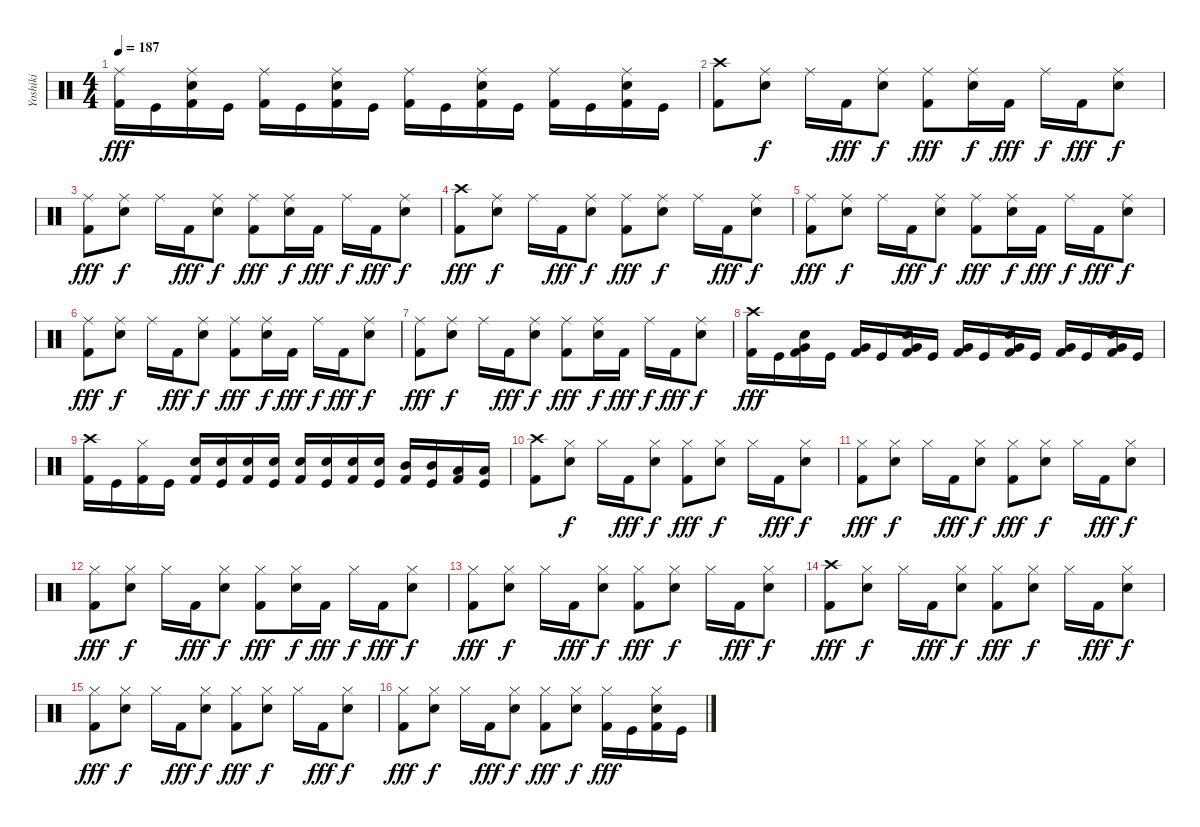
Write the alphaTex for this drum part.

\track ("Yoshiki" "Yoshiki") {instrument percussion}
\staff {score}
\articulation defaults
\ts (4 4)
\tempo 187
\clef neutral
\ks c
("Ride (middle)" "Kick (hit) 2").16{dy fff} "Kick (hit)".16 ("Ride (middle)" "Electric Snare (hit)" "Kick (hit) 2").16 "Kick (hit)".16 ("Ride (middle)" "Kick (hit) 2").16 "Kick (hit)".16 ("Ride (middle)" "Electric Snare (hit)" "Kick (hit) 2").16 "Kick (hit)".16 ("Ride (middle)" "Kick (hit) 2").16 "Kick (hit)".16 ("Ride (middle)" "Electric Snare (hit)" "Kick (hit) 2").16 "Kick (hit)".16 ("Ride (middle)" "Kick (hit) 2").16 "Kick (hit)".16 ("Ride (middle)" "Electric Snare (hit)" "Kick (hit) 2").16 "Kick (hit)".16 |
("Crash high (hit)" "Kick (hit) 2").8 ("Ride (middle)" "Electric Snare (hit)").8{dy f} "Ride (middle)".16 "Kick (hit) 2".16{dy fff} ("Ride (middle)" "Electric Snare (hit)").8{dy f} ("Ride (middle)" "Kick (hit) 2").8{dy fff} ("Ride (middle)" "Electric Snare (hit)").16{dy f} "Kick (hit) 2".16{dy fff} "Ride (middle)".16{dy f} "Kick (hit) 2".16{dy fff} ("Ride (middle)" "Electric Snare (hit)").8{dy f} |
("Ride (middle)" "Kick (hit) 2").8{dy fff} ("Ride (middle)" "Electric Snare (hit)").8{dy f} "Ride (middle)".16 "Kick (hit) 2".16{dy fff} ("Ride (middle)" "Electric Snare (hit)").8{dy f} ("Ride (middle)" "Kick (hit) 2").8{dy fff} ("Ride (middle)" "Electric Snare (hit)").16{dy f} "Kick (hit) 2".16{dy fff} "Ride (middle)".16{dy f} "Kick (hit) 2".16{dy fff} ("Ride (middle)" "Electric Snare (hit)").8{dy f} |
("Crash high (hit)" "Kick (hit) 2").8{dy fff} ("Ride (middle)" "Electric Snare (hit)").8{dy f} "Ride (middle)".16 "Kick (hit) 2".16{dy fff} ("Ride (middle)" "Electric Snare (hit)").8{dy f} ("Ride (middle)" "Kick (hit) 2").8{dy fff} ("Ride (middle)" "Electric Snare (hit)").8{dy f} "Ride (middle)".16 "Kick (hit) 2".16{dy fff} ("Ride (middle)" "Electric Snare (hit)").8{dy f} |
("Ride (middle)" "Kick (hit) 2").8{dy fff} ("Ride (middle)" "Electric Snare (hit)").8{dy f} "Ride (middle)".16 "Kick (hit) 2".16{dy fff} ("Ride (middle)" "Electric Snare (hit)").8{dy f} ("Ride (middle)" "Kick (hit) 2").8{dy fff} ("Ride (middle)" "Electric Snare (hit)").16{dy f} "Kick (hit) 2".16{dy fff} "Ride (middle)".16{dy f} "Kick (hit) 2".16{dy fff} ("Ride (middle)" "Electric Snare (hit)").8{dy f} |
("Ride (middle)" "Kick (hit) 2").8{dy fff} ("Ride (middle)" "Electric Snare (hit)").8{dy f} "Ride (middle)".16 "Kick (hit) 2".16{dy fff} ("Ride (middle)" "Electric Snare (hit)").8{dy f} ("Ride (middle)" "Kick (hit) 2").8{dy fff} ("Ride (middle)" "Electric Snare (hit)").16{dy f} "Kick (hit) 2".16{dy fff} "Ride (middle)".16{dy f} "Kick (hit) 2".16{dy fff} ("Ride (middle)" "Electric Snare (hit)").8{dy f} |
("Ride (middle)" "Kick (hit) 2").8{dy fff} ("Ride (middle)" "Electric Snare (hit)").8{dy f} "Ride (middle)".16 "Kick (hit) 2".16{dy fff} ("Ride (middle)" "Electric Snare (hit)").8{dy f} ("Ride (middle)" "Kick (hit) 2").8{dy fff} ("Ride (middle)" "Electric Snare (hit)").16{dy f} "Kick (hit) 2".16{dy fff} "Ride (middle)".16{dy f} "Kick (hit) 2".16{dy fff} ("Ride (middle)" "Electric Snare (hit)").8{dy f} |
("Crash high (hit)" "Kick (hit) 2").16{dy fff} "Kick (hit)".16 ("Very Low Tom (hit)" "Electric Snare (hit)" "Kick (hit) 2").16 "Kick (hit)".16 ("Very Low Tom (hit)" "Kick (hit) 2").16 "Kick (hit)".16 ("Very Low Tom (hit)" "Electric Snare (hit)" "Kick (hit) 2").16 "Kick (hit)".16 ("Very Low Tom (hit)" "Kick (hit) 2").16 "Kick (hit)".16 ("Very Low Tom (hit)" "Electric Snare (hit)" "Kick (hit) 2").16 "Kick (hit)".16 ("Very Low Tom (hit)" "Kick (hit) 2").16 "Kick (hit)".16 ("Very Low Tom (hit)" "Electric Snare (hit)" "Kick (hit) 2").16 "Kick (hit)".16 |
("Crash high (hit)" "Kick (hit) 2").16 "Kick (hit)".16 ("Hi-Hat (closed)" "Kick (hit) 2").16 "Kick (hit)".16 ("Electric Snare (hit)" "Kick (hit) 2").16 ("Electric Snare (hit)" "Kick (hit)").16 ("Electric Snare (hit)" "Kick (hit) 2").16 ("Electric Snare (hit)" "Kick (hit)").16 ("Electric Snare (hit)" "Kick (hit) 2").16 ("Electric Snare (hit)" "Kick (hit)").16 ("Electric Snare (hit)" "Kick (hit) 2").16 ("Electric Snare (hit)" "Kick (hit)").16 ("Mid Tom (hit)" "Kick (hit) 2").16 ("Mid Tom (hit)" "Kick (hit)").16 ("Low Tom (hit)" "Kick (hit) 2").16 ("Low Tom (hit)" "Kick (hit)").16 |
("Crash high (hit)" "Kick (hit) 2").8 ("Hi-Hat (closed)" "Electric Snare (hit)").8{dy f} "Hi-Hat (closed)".16 "Kick (hit) 2".16{dy fff} ("Hi-Hat (closed)" "Electric Snare (hit)").8{dy f} ("Hi-Hat (closed)" "Kick (hit) 2").8{dy fff} ("Hi-Hat (closed)" "Electric Snare (hit)").8{dy f} "Hi-Hat (closed)".16 "Kick (hit) 2".16{dy fff} ("Hi-Hat (closed)" "Electric Snare (hit)").8{dy f} |
("Hi-Hat (closed)" "Kick (hit) 2").8{dy fff} ("Hi-Hat (closed)" "Electric Snare (hit)").8{dy f} "Hi-Hat (closed)".16 "Kick (hit) 2".16{dy fff} ("Hi-Hat (closed)" "Electric Snare (hit)").8{dy f} ("Hi-Hat (closed)" "Kick (hit) 2").8{dy fff} ("Hi-Hat (closed)" "Electric Snare (hit)").8{dy f} "Hi-Hat (closed)".16 "Kick (hit) 2".16{dy fff} ("Hi-Hat (closed)" "Electric Snare (hit)").8{dy f} |
("Hi-Hat (closed)" "Kick (hit) 2").8{dy fff} ("Hi-Hat (closed)" "Electric Snare (hit)").8{dy f} "Hi-Hat (closed)".16 "Kick (hit) 2".16{dy fff} ("Hi-Hat (closed)" "Electric Snare (hit)").8{dy f} ("Hi-Hat (closed)" "Kick (hit) 2").8{dy fff} ("Hi-Hat (closed)" "Electric Snare (hit)").16{dy f} "Kick (hit) 2".16{dy fff} "Hi-Hat (closed)".16{dy f} "Kick (hit) 2".16{dy fff} ("Hi-Hat (closed)" "Electric Snare (hit)").8{dy f} |
("Hi-Hat (closed)" "Kick (hit) 2").8{dy fff} ("Hi-Hat (closed)" "Electric Snare (hit)").8{dy f} "Hi-Hat (closed)".16 "Kick (hit) 2".16{dy fff} ("Hi-Hat (closed)" "Electric Snare (hit)").8{dy f} ("Hi-Hat (closed)" "Kick (hit) 2").8{dy fff} ("Hi-Hat (closed)" "Electric Snare (hit)").8{dy f} "Hi-Hat (closed)".16 "Kick (hit) 2".16{dy fff} ("Hi-Hat (closed)" "Electric Snare (hit)").8{dy f} |
("Crash high (hit)" "Kick (hit) 2").8{dy fff} ("Hi-Hat (closed)" "Electric Snare (hit)").8{dy f} "Hi-Hat (closed)".16 "Kick (hit) 2".16{dy fff} ("Hi-Hat (closed)" "Electric Snare (hit)").8{dy f} ("Hi-Hat (closed)" "Kick (hit) 2").8{dy fff} ("Hi-Hat (closed)" "Electric Snare (hit)").8{dy f} "Hi-Hat (closed)".16 "Kick (hit) 2".16{dy fff} ("Hi-Hat (closed)" "Electric Snare (hit)").8{dy f} |
("Hi-Hat (closed)" "Kick (hit) 2").8{dy fff} ("Hi-Hat (closed)" "Electric Snare (hit)").8{dy f} "Hi-Hat (closed)".16 "Kick (hit) 2".16{dy fff} ("Hi-Hat (closed)" "Electric Snare (hit)").8{dy f} ("Hi-Hat (closed)" "Kick (hit) 2").8{dy fff} ("Hi-Hat (closed)" "Electric Snare (hit)").8{dy f} "Hi-Hat (closed)".16 "Kick (hit) 2".16{dy fff} ("Hi-Hat (closed)" "Electric Snare (hit)").8{dy f} |
("Hi-Hat (closed)" "Kick (hit) 2").8{dy fff} ("Hi-Hat (closed)" "Electric Snare (hit)").8{dy f} "Hi-Hat (closed)".16 "Kick (hit) 2".16{dy fff} ("Hi-Hat (closed)" "Electric Snare (hit)").8{dy f} ("Hi-Hat (closed)" "Kick (hit) 2").8{dy fff} ("Hi-Hat (closed)" "Electric Snare (hit)").8{dy f} ("Hi-Hat (closed)" "Kick (hit) 2").16{dy fff} "Kick (hit)".16 ("Hi-Hat (closed)" "Electric Snare (hit)" "Kick (hit) 2").16 "Kick (hit)".16
